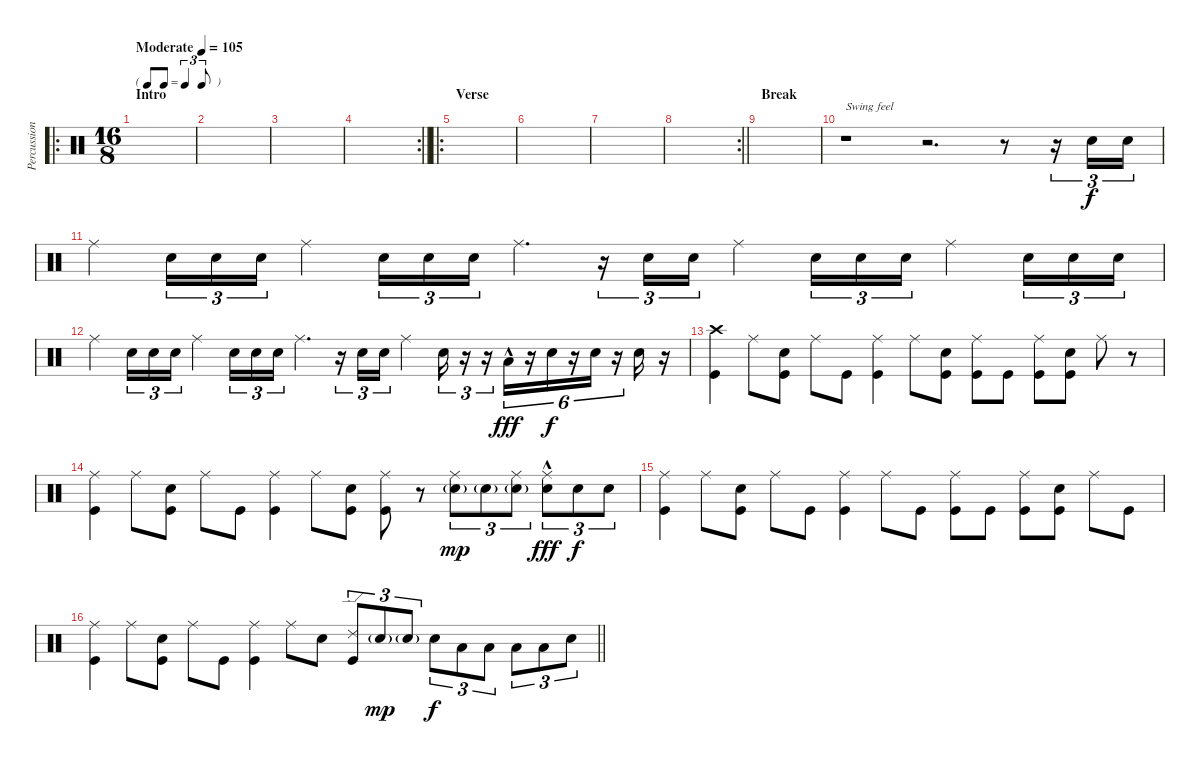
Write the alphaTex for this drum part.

\track ("Percussion" "Percussion") {instrument percussion}
\staff {score}
\articulation defaults
\ro
\ts (16 8)
\tf triplet8th
\section ("" "Intro")
\tempo (105 "Moderate")
\clef neutral
\ks c
|
|
|
\rc 2
\barLineRight lightlight
|
\ro
\section ("" "Verse")
|
|
|
\rc 2
\barLineRight lightlight
|
\section ("" "Break")
|
r.1{txt "Swing feel"} r.2{d} r.8 r.16{tu (3 2)} "Electric Snare (hit)".16{tu (3 2)} "Electric Snare (hit)".16{tu (3 2)} |
"Ride (middle)".4 "Electric Snare (hit)".16{tu (3 2)} "Electric Snare (hit)".16{tu (3 2)} "Electric Snare (hit)".16{tu (3 2)} "Ride (middle)".4 "Electric Snare (hit)".16{tu (3 2)} "Electric Snare (hit)".16{tu (3 2)} "Electric Snare (hit)".16{tu (3 2)} "Ride (middle)".4{d} r.16{tu (3 2)} "Electric Snare (hit)".16{tu (3 2)} "Electric Snare (hit)".16{tu (3 2)} "Ride (middle)".4 "Electric Snare (hit)".16{tu (3 2)} "Electric Snare (hit)".16{tu (3 2)} "Electric Snare (hit)".16{tu (3 2)} "Ride (middle)".4 "Electric Snare (hit)".16{tu (3 2)} "Electric Snare (hit)".16{tu (3 2)} "Electric Snare (hit)".16{tu (3 2)} |
"Ride (middle)".4 "Electric Snare (hit)".16{tu (3 2)} "Electric Snare (hit)".16{tu (3 2)} "Electric Snare (hit)".16{tu (3 2)} "Ride (middle)".4 "Electric Snare (hit)".16{tu (3 2)} "Electric Snare (hit)".16{tu (3 2)} "Electric Snare (hit)".16{tu (3 2)} "Ride (middle)".4{d} r.16{tu (3 2)} "Electric Snare (hit)".16{tu (3 2)} "Electric Snare (hit)".16{tu (3 2)} "Ride (middle)".4 "Electric Snare (hit)".16{tu (3 2)} r.16{tu (3 2)} r.16{tu (3 2)} "Low Floor Tom (hit)"{hac}.16{tu (6 4) dy fff} r.16{tu (6 4)} "Electric Snare (hit)".16{tu (6 4) dy f} r.16{tu (6 4)} "Electric Snare (hit)".16{tu (6 4)} r.16{tu (6 4)} "Electric Snare (hit)".16 r.16 |
("Crash high (hit)" "Kick (hit)").4 "Ride (middle)".8 ("Electric Snare (hit)" "Kick (hit)").8 "Ride (middle)".8 "Kick (hit)".8 ("Ride (middle)" "Kick (hit)").4 "Ride (middle)".8 ("Electric Snare (hit)" "Kick (hit)").8 ("Ride (middle)" "Kick (hit)").8 "Kick (hit)".8 ("Ride (middle)" "Kick (hit)").8 ("Electric Snare (hit)" "Kick (hit)").8 "Ride (middle)".8 r.8 |
("Ride (middle)" "Kick (hit)").4 "Ride (middle)".8 ("Electric Snare (hit)" "Kick (hit)").8 "Ride (middle)".8 "Kick (hit)".8 ("Ride (middle)" "Kick (hit)").4 "Ride (middle)".8 ("Electric Snare (hit)" "Kick (hit)").8 ("Ride (middle)" "Kick (hit)").8 r.8 ("Ride (middle)" "Electric Snare (hit)"{g}).8{tu (3 2) dy mp} "Electric Snare (hit)"{g}.8{tu (3 2)} ("Ride (middle)" "Electric Snare (hit)"{g}).8{tu (3 2)} ("Ride (middle)"{hac} "Electric Snare (hit)").8{tu (3 2) dy fff} "Electric Snare (hit)".8{tu (3 2) dy f} "Electric Snare (hit)".8{tu (3 2)} |
("Ride (middle)" "Kick (hit)").4 "Ride (middle)".8 ("Electric Snare (hit)" "Kick (hit)").8 "Ride (middle)".8 "Kick (hit)".8 ("Ride (middle)" "Kick (hit)").4 "Ride (middle)".8 "Kick (hit)".8 ("Ride (middle)" "Kick (hit)").8 "Kick (hit)".8 ("Ride (middle)" "Kick (hit)").8 ("Electric Snare (hit)" "Kick (hit)").8 "Ride (middle)".8 "Kick (hit)".8 |
\barLineRight lightlight
("Ride (middle)" "Kick (hit)").4 "Ride (middle)".8 ("Electric Snare (hit)" "Kick (hit)").8 "Ride (middle)".8 "Kick (hit)".8 ("Ride (middle)" "Kick (hit)").4 "Ride (middle)".8 "Electric Snare (hit)".8 ("Ride (edge) 2" "Kick (hit)").8{tu (3 2)} "Electric Snare (hit)"{g}.8{tu (3 2) dy mp} "Electric Snare (hit)"{g}.8{tu (3 2)} "Electric Snare (hit)".8{tu (3 2) dy f} "Low Floor Tom (hit)".8{tu (3 2)} "Low Floor Tom (hit)".8{tu (3 2)} "Low Floor Tom (hit)".8{tu (3 2)} "Low Floor Tom (hit)".8{tu (3 2)} "Electric Snare (hit)".8{tu (3 2)}
